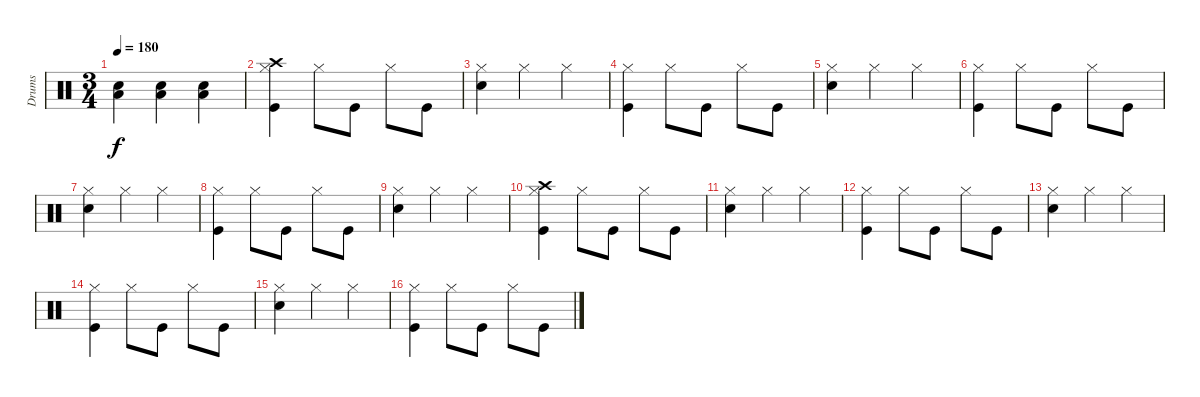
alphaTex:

\track ("Drums" "Drums") {instrument percussion}
\staff {score}
\articulation defaults
\ts (3 4)
\tempo 180
\clef neutral
\ks c
("Electric Snare (hit)" "Low Floor Tom (hit)").4{dy f} ("Electric Snare (hit)" "Low Floor Tom (hit)").4 ("Electric Snare (hit)" "Low Floor Tom (hit)").4 |
("Crash high (hit)" "Hi-Hat (closed)" "Kick (hit)").4 "Hi-Hat (closed)".8 "Kick (hit)".8 "Hi-Hat (closed)".8 "Kick (hit)".8 |
("Hi-Hat (closed)" "Electric Snare (hit)").4 "Hi-Hat (closed)".4 "Hi-Hat (closed)".4 |
("Hi-Hat (closed)" "Kick (hit)").4 "Hi-Hat (closed)".8 "Kick (hit)".8 "Hi-Hat (closed)".8 "Kick (hit)".8 |
("Hi-Hat (closed)" "Electric Snare (hit)").4 "Hi-Hat (closed)".4 "Hi-Hat (closed)".4 |
("Hi-Hat (closed)" "Kick (hit)").4 "Hi-Hat (closed)".8 "Kick (hit)".8 "Hi-Hat (closed)".8 "Kick (hit)".8 |
("Hi-Hat (closed)" "Electric Snare (hit)").4 "Hi-Hat (closed)".4 "Hi-Hat (closed)".4 |
("Hi-Hat (closed)" "Kick (hit)").4 "Hi-Hat (closed)".8 "Kick (hit)".8 "Hi-Hat (closed)".8 "Kick (hit)".8 |
("Hi-Hat (closed)" "Electric Snare (hit)").4 "Hi-Hat (closed)".4 "Hi-Hat (closed)".4 |
("Crash high (hit)" "Hi-Hat (closed)" "Kick (hit)").4 "Hi-Hat (closed)".8 "Kick (hit)".8 "Hi-Hat (closed)".8 "Kick (hit)".8 |
("Hi-Hat (closed)" "Electric Snare (hit)").4 "Hi-Hat (closed)".4 "Hi-Hat (closed)".4 |
("Hi-Hat (closed)" "Kick (hit)").4 "Hi-Hat (closed)".8 "Kick (hit)".8 "Hi-Hat (closed)".8 "Kick (hit)".8 |
("Hi-Hat (closed)" "Electric Snare (hit)").4 "Hi-Hat (closed)".4 "Hi-Hat (closed)".4 |
("Hi-Hat (closed)" "Kick (hit)").4 "Hi-Hat (closed)".8 "Kick (hit)".8 "Hi-Hat (closed)".8 "Kick (hit)".8 |
("Hi-Hat (closed)" "Electric Snare (hit)").4 "Hi-Hat (closed)".4 "Hi-Hat (closed)".4 |
("Hi-Hat (closed)" "Kick (hit)").4 "Hi-Hat (closed)".8 "Kick (hit)".8 "Hi-Hat (closed)".8 "Kick (hit)".8
